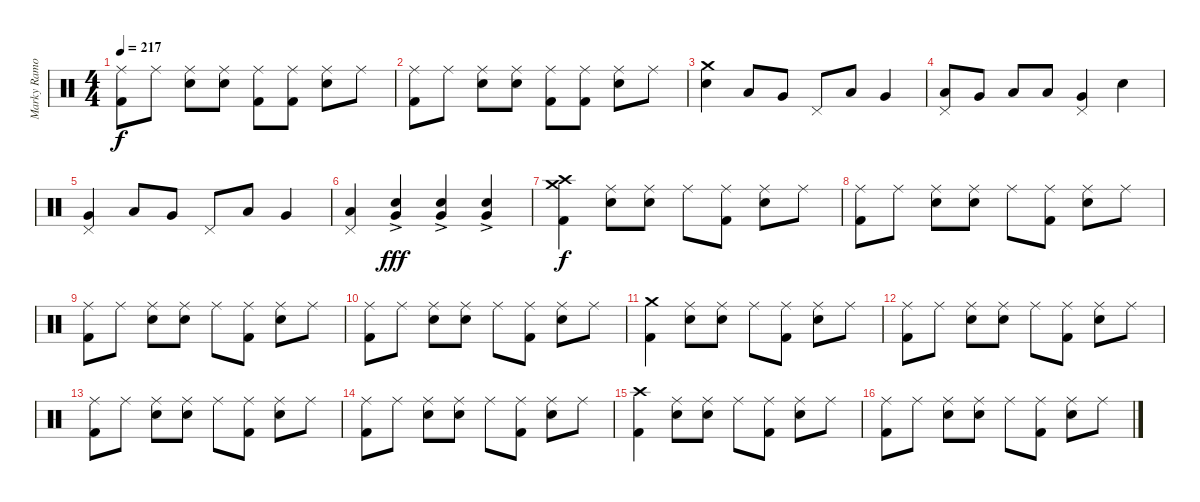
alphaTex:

\track ("Marky Ramone" "Marky Ramo") {instrument percussion}
\staff {score}
\articulation defaults
\ts (4 4)
\tempo 217
\clef neutral
\ks c
("Ride (middle)" "Kick (hit) 2").8{dy f} "Ride (middle)".8 ("Ride (middle)" "Electric Snare (hit)").8 ("Ride (middle)" "Electric Snare (hit)").8 ("Ride (middle)" "Kick (hit) 2").8 ("Ride (middle)" "Kick (hit) 2").8 ("Ride (middle)" "Electric Snare (hit)").8 "Ride (middle)".8 |
("Ride (middle)" "Kick (hit) 2").8 "Ride (middle)".8 ("Ride (middle)" "Electric Snare (hit)").8 ("Ride (middle)" "Electric Snare (hit)").8 ("Ride (middle)" "Kick (hit) 2").8 ("Ride (middle)" "Kick (hit) 2").8 ("Ride (middle)" "Electric Snare (hit)").8 "Ride (middle)".8 |
("Crash medium (hit)" "Electric Snare (hit)").4 "Low Tom (hit)".8 "Very Low Tom (hit)".8 "Pedal Hi-Hat (hit)".8 "Low Tom (hit)".8 "Very Low Tom (hit)".4 |
("Pedal Hi-Hat (hit)" "Low Tom (hit)").8 "Very Low Tom (hit)".8 "Low Floor Tom (hit)".8 "Low Tom (hit)".8 ("Pedal Hi-Hat (hit)" "Very Low Tom (hit)").4 "Electric Snare (hit)".4 |
("Pedal Hi-Hat (hit)" "Very Low Tom (hit)").4 "Low Tom (hit)".8 "Very Low Tom (hit)".8 "Pedal Hi-Hat (hit)".8 "Low Tom (hit)".8 "Very Low Tom (hit)".4 |
("Pedal Hi-Hat (hit)" "Low Tom (hit)").4 ("Electric Snare (hit)" "Very Low Tom (hit)"{ac}).4{dy fff} ("Electric Snare (hit)" "Very Low Tom (hit)"{ac}).4 ("Electric Snare (hit)" "Very Low Tom (hit)"{ac}).4 |
("Crash high (hit)" "Crash medium (hit)" "Kick (hit) 2").4{dy f} ("Ride (middle)" "Electric Snare (hit)").8 ("Ride (middle)" "Electric Snare (hit)").8 "Ride (middle)".8 ("Ride (middle)" "Kick (hit) 2").8 ("Ride (middle)" "Electric Snare (hit)").8 "Ride (middle)".8 |
("Ride (middle)" "Kick (hit) 2").8 "Ride (middle)".8 ("Ride (middle)" "Electric Snare (hit)").8 ("Ride (middle)" "Electric Snare (hit)").8 "Ride (middle)".8 ("Ride (middle)" "Kick (hit) 2").8 ("Ride (middle)" "Electric Snare (hit)").8 "Ride (middle)".8 |
("Ride (middle)" "Kick (hit) 2").8 "Ride (middle)".8 ("Ride (middle)" "Electric Snare (hit)").8 ("Ride (middle)" "Electric Snare (hit)").8 "Ride (middle)".8 ("Ride (middle)" "Kick (hit) 2").8 ("Ride (middle)" "Electric Snare (hit)").8 "Ride (middle)".8 |
("Ride (middle)" "Kick (hit) 2").8 "Ride (middle)".8 ("Ride (middle)" "Electric Snare (hit)").8 ("Ride (middle)" "Electric Snare (hit)").8 "Ride (middle)".8 ("Ride (middle)" "Kick (hit) 2").8 ("Ride (middle)" "Electric Snare (hit)").8 "Ride (middle)".8 |
("Crash medium (hit)" "Kick (hit) 2").4 ("Ride (middle)" "Electric Snare (hit)").8 ("Ride (middle)" "Electric Snare (hit)").8 "Ride (middle)".8 ("Ride (middle)" "Kick (hit) 2").8 ("Ride (middle)" "Electric Snare (hit)").8 "Ride (middle)".8 |
("Ride (middle)" "Kick (hit) 2").8 "Ride (middle)".8 ("Ride (middle)" "Electric Snare (hit)").8 ("Ride (middle)" "Electric Snare (hit)").8 "Ride (middle)".8 ("Ride (middle)" "Kick (hit) 2").8 ("Ride (middle)" "Electric Snare (hit)").8 "Ride (middle)".8 |
("Ride (middle)" "Kick (hit) 2").8 "Ride (middle)".8 ("Ride (middle)" "Electric Snare (hit)").8 ("Ride (middle)" "Electric Snare (hit)").8 "Ride (middle)".8 ("Ride (middle)" "Kick (hit) 2").8 ("Ride (middle)" "Electric Snare (hit)").8 "Ride (middle)".8 |
("Ride (middle)" "Kick (hit) 2").8 "Ride (middle)".8 ("Ride (middle)" "Electric Snare (hit)").8 ("Ride (middle)" "Electric Snare (hit)").8 "Ride (middle)".8 ("Ride (middle)" "Kick (hit) 2").8 ("Ride (middle)" "Electric Snare (hit)").8 "Ride (middle)".8 |
("Crash high (hit)" "Kick (hit) 2").4 ("Ride (middle)" "Electric Snare (hit)").8 ("Ride (middle)" "Electric Snare (hit)").8 "Ride (middle)".8 ("Ride (middle)" "Kick (hit) 2").8 ("Ride (middle)" "Electric Snare (hit)").8 "Ride (middle)".8 |
("Ride (middle)" "Kick (hit) 2").8 "Ride (middle)".8 ("Ride (middle)" "Electric Snare (hit)").8 ("Ride (middle)" "Electric Snare (hit)").8 "Ride (middle)".8 ("Ride (middle)" "Kick (hit) 2").8 ("Ride (middle)" "Electric Snare (hit)").8 "Ride (middle)".8
